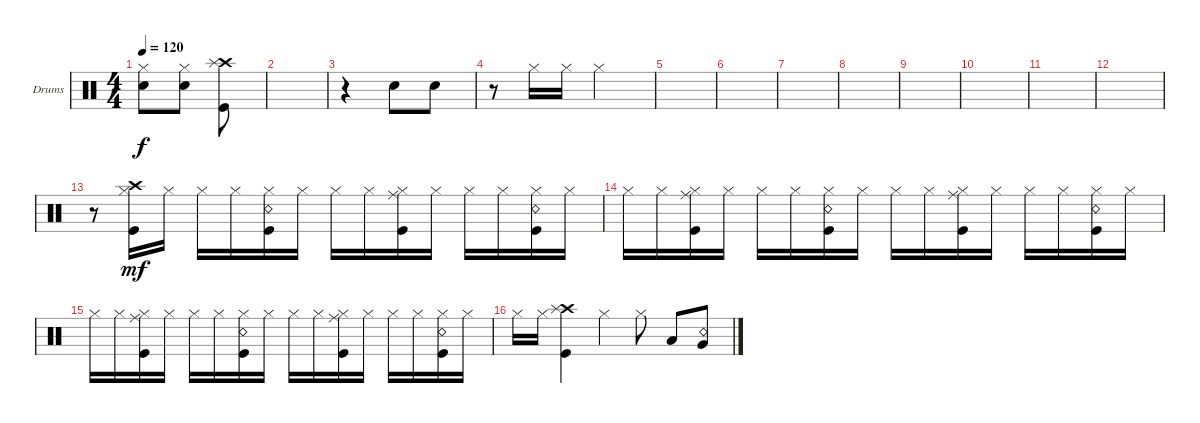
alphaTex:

\defaultSystemsLayout 4
\bracketExtendMode groupsimilarinstruments
\firstSystemTrackNameOrientation horizontal
\otherSystemsTrackNameOrientation horizontal
\track ("Нюта" "Drums") {instrument percussion}
\staff {score}
\articulation defaults
\ts (4 4)
\tempo 120
\clef neutral
\ks c
("Hi-Hat (closed)" "Snare (hit) 2").8{dy f} ("Hi-Hat (closed)" "Snare (hit) 2").8 ("Crash high (hit)" "Splash (hit)" "Kick (hit)").8 |
|
r.4 "Snare (hit) 2".8 "Snare (hit) 2".8 |
r.8 "Hi-Hat (closed)".16 "Hi-Hat (closed)".16 "Hi-Hat (closed)".2 |
|
|
|
|
|
|
|
|
r.8 ("Hi-Hat (closed)" "Crash high (hit)" "Kick (hit)").16{dy mf} "Hi-Hat (closed)".16 "Hi-Hat (closed)".16 "Hi-Hat (closed)".16 ("Hi-Hat (closed)" "Snare (rim shot)" "Kick (hit)").16 "Hi-Hat (closed)".16 "Hi-Hat (closed)".16 "Hi-Hat (closed)".16 ("Hi-Hat (closed)" "Ride (middle)" "Kick (hit)").16 "Hi-Hat (closed)".16 "Hi-Hat (closed)".16 "Hi-Hat (closed)".16 ("Hi-Hat (closed)" "Snare (rim shot)" "Kick (hit)").16 "Hi-Hat (closed)".16 |
"Hi-Hat (closed)".16 "Hi-Hat (closed)".16 ("Hi-Hat (closed)" "Ride (middle)" "Kick (hit)").16 "Hi-Hat (closed)".16 "Hi-Hat (closed)".16 "Hi-Hat (closed)".16 ("Hi-Hat (closed)" "Snare (rim shot)" "Kick (hit)").16 "Hi-Hat (closed)".16 "Hi-Hat (closed)".16 "Hi-Hat (closed)".16 ("Hi-Hat (closed)" "Ride (middle)" "Kick (hit)").16 "Hi-Hat (closed)".16 "Hi-Hat (closed)".16 "Hi-Hat (closed)".16 ("Hi-Hat (closed)" "Snare (rim shot)" "Kick (hit)").16 "Hi-Hat (closed)".16 |
"Hi-Hat (closed)".16 "Hi-Hat (closed)".16 ("Hi-Hat (closed)" "Ride (middle)" "Kick (hit)").16 "Hi-Hat (closed)".16 "Hi-Hat (closed)".16 "Hi-Hat (closed)".16 ("Hi-Hat (closed)" "Snare (rim shot)" "Kick (hit)").16 "Hi-Hat (closed)".16 "Hi-Hat (closed)".16 "Hi-Hat (closed)".16 ("Hi-Hat (closed)" "Ride (middle)" "Kick (hit)").16 "Hi-Hat (closed)".16 "Hi-Hat (closed)".16 "Hi-Hat (closed)".16 ("Hi-Hat (closed)" "Snare (rim shot)" "Kick (hit)").16 "Hi-Hat (closed)".16 |
"Hi-Hat (closed)".16 "Hi-Hat (closed)".16 ("Crash high (hit)" "Splash (hit)" "Kick (hit)").4 "Hi-Hat (closed)".4 "Hi-Hat (closed)".8 "Low Tom (hit)".8 ("Very Low Tom (hit)" "Snare (rim shot)").8
